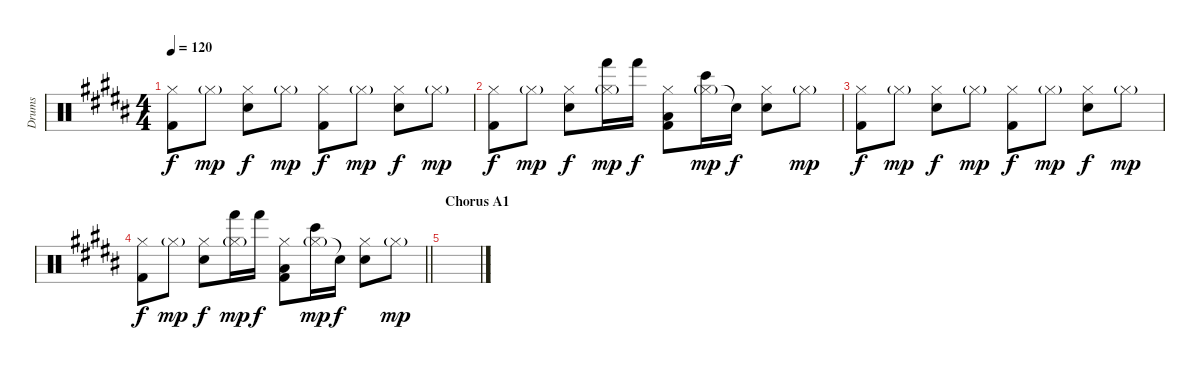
\track ("Drums" "Drums") {instrument percussion}
\staff {score}
\articulation defaults
\ts (4 4)
\tempo 120
\clef neutral
\ks g#minor
("Hi-Hat (closed)" "Kick (hit) 2").8{dy f} "Hi-Hat (closed)"{g}.8{dy mp} ("Hi-Hat (closed)" "Electric Snare (hit)").8{dy f} "Hi-Hat (closed)"{g}.8{dy mp} ("Hi-Hat (closed)" "Kick (hit) 2").8{dy f} "Hi-Hat (closed)"{g}.8{dy mp} ("Hi-Hat (closed)" "Electric Snare (hit)").8{dy f} "Hi-Hat (closed)"{g}.8{dy mp} |
("Hi-Hat (closed)" "Kick (hit) 2").8{dy f} "Hi-Hat (closed)"{g}.8{dy mp} ("Hi-Hat (closed)" "Electric Snare (hit)").8{dy f} ("Hi-Hat (closed)"{g} "Hand (hit)").16{dy mp} "Hand (hit)".16{dy f} ("Hi-Hat (closed)" "Low Tom (hit)" "Kick (hit) 2").8 ("Hi-Hat (closed)"{g} "Bongo High (hit)").16{dy mp} "Snare (hit)"{t}.16{dy f} ("Hi-Hat (closed)" "Electric Snare (hit)").8 "Hi-Hat (closed)"{g}.8{dy mp} |
("Hi-Hat (closed)" "Kick (hit) 2").8{dy f} "Hi-Hat (closed)"{g}.8{dy mp} ("Hi-Hat (closed)" "Electric Snare (hit)").8{dy f} "Hi-Hat (closed)"{g}.8{dy mp} ("Hi-Hat (closed)" "Kick (hit) 2").8{dy f} "Hi-Hat (closed)"{g}.8{dy mp} ("Hi-Hat (closed)" "Electric Snare (hit)").8{dy f} "Hi-Hat (closed)"{g}.8{dy mp} |
\barLineRight lightlight
("Hi-Hat (closed)" "Kick (hit) 2").8{dy f} "Hi-Hat (closed)"{g}.8{dy mp} ("Hi-Hat (closed)" "Electric Snare (hit)").8{dy f} ("Hi-Hat (closed)"{g} "Hand (hit)").16{dy mp} "Hand (hit)".16{dy f} ("Hi-Hat (closed)" "Low Tom (hit)" "Kick (hit) 2").8 ("Hi-Hat (closed)"{g} "Bongo High (hit)").16{dy mp} "Snare (hit)"{t}.16{dy f} ("Hi-Hat (closed)" "Electric Snare (hit)").8 "Hi-Hat (closed)"{g}.8{dy mp} |
\section ("" "Chorus A1")
